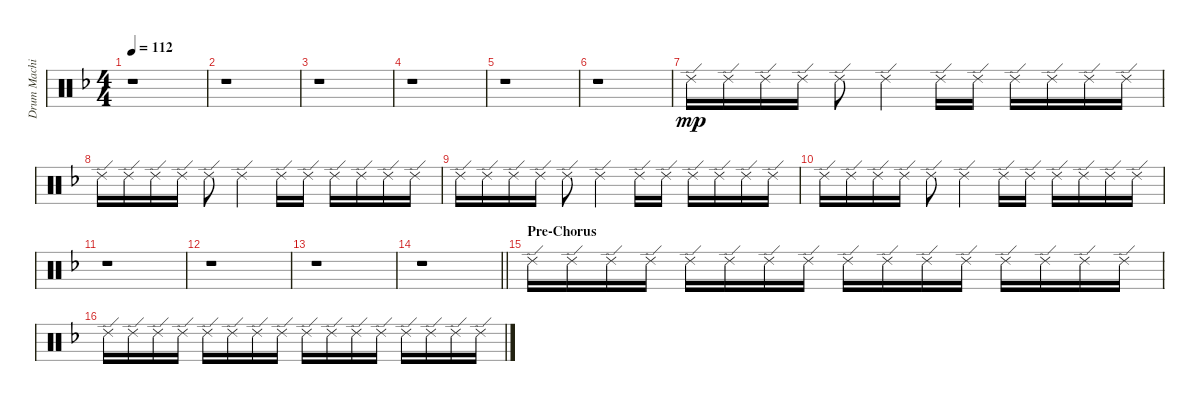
\track ("Drum Machine" "Drum Machi") {instrument percussion}
\staff {score}
\articulation defaults
\ts (4 4)
\tempo 112
\clef neutral
\ks f
r.1{dy mp} |
r.1 |
r.1 |
r.1 |
r.1 |
r.1 |
"Ride (edge) 2".16 "Ride (edge) 2".16 "Ride (edge) 2".16 "Ride (edge) 2".16 "Ride (edge) 2".8 "Ride (edge) 2".4 "Ride (edge) 2".16 "Ride (edge) 2".16 "Ride (edge) 2".16 "Ride (edge) 2".16 "Ride (edge) 2".16 "Ride (edge) 2".16 |
"Ride (edge) 2".16 "Ride (edge) 2".16 "Ride (edge) 2".16 "Ride (edge) 2".16 "Ride (edge) 2".8 "Ride (edge) 2".4 "Ride (edge) 2".16 "Ride (edge) 2".16 "Ride (edge) 2".16 "Ride (edge) 2".16 "Ride (edge) 2".16 "Ride (edge) 2".16 |
"Ride (edge) 2".16 "Ride (edge) 2".16 "Ride (edge) 2".16 "Ride (edge) 2".16 "Ride (edge) 2".8 "Ride (edge) 2".4 "Ride (edge) 2".16 "Ride (edge) 2".16 "Ride (edge) 2".16 "Ride (edge) 2".16 "Ride (edge) 2".16 "Ride (edge) 2".16 |
"Ride (edge) 2".16 "Ride (edge) 2".16 "Ride (edge) 2".16 "Ride (edge) 2".16 "Ride (edge) 2".8 "Ride (edge) 2".4 "Ride (edge) 2".16 "Ride (edge) 2".16 "Ride (edge) 2".16 "Ride (edge) 2".16 "Ride (edge) 2".16 "Ride (edge) 2".16 |
r.1 |
r.1 |
r.1 |
\barLineRight lightlight
r.1 |
\section ("" "Pre-Chorus")
"Ride (edge) 2".16 "Ride (edge) 2".16 "Ride (edge) 2".16 "Ride (edge) 2".16 "Ride (edge) 2".16 "Ride (edge) 2".16 "Ride (edge) 2".16 "Ride (edge) 2".16 "Ride (edge) 2".16 "Ride (edge) 2".16 "Ride (edge) 2".16 "Ride (edge) 2".16 "Ride (edge) 2".16 "Ride (edge) 2".16 "Ride (edge) 2".16 "Ride (edge) 2".16 |
"Ride (edge) 2".16 "Ride (edge) 2".16 "Ride (edge) 2".16 "Ride (edge) 2".16 "Ride (edge) 2".16 "Ride (edge) 2".16 "Ride (edge) 2".16 "Ride (edge) 2".16 "Ride (edge) 2".16 "Ride (edge) 2".16 "Ride (edge) 2".16 "Ride (edge) 2".16 "Ride (edge) 2".16 "Ride (edge) 2".16 "Ride (edge) 2".16 "Ride (edge) 2".16
